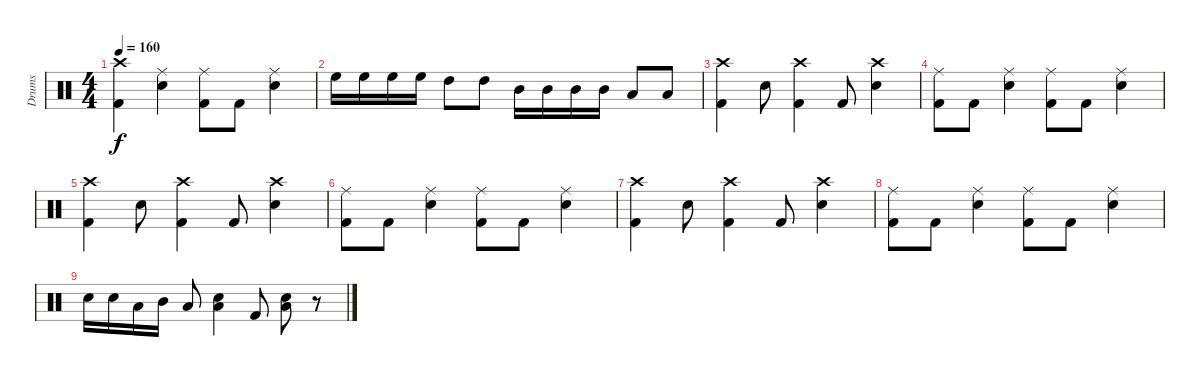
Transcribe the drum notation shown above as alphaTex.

\track ("Drums" "Drums") {instrument percussion}
\staff {score}
\articulation defaults
\ts (4 4)
\tempo 160
\clef neutral
\ks c
("Crash high (hit)" "Kick (hit) 2").4{dy f} ("Ride (middle)" "Snare (hit) 2").4 ("Ride (middle)" "Kick (hit) 2").8 "Kick (hit) 2".8 ("Ride (middle)" "Snare (hit) 2").4 |
"High Floor Tom (hit)".16 "High Floor Tom (hit)".16 "High Floor Tom (hit)".16 "High Floor Tom (hit)".16 "High Tom (hit)".8 "High Tom (hit)".8 "Mid Tom (hit)".16 "Mid Tom (hit)".16 "Mid Tom (hit)".16 "Mid Tom (hit)".16 "Low Tom (hit)".8 "Low Tom (hit)".8 |
("Crash high (hit)" "Kick (hit) 2").4 "Snare (hit) 2".8 ("Crash high (hit)" "Kick (hit) 2").4 "Kick (hit) 2".8 ("Crash high (hit)" "Snare (hit) 2").4 |
("Ride (middle)" "Kick (hit) 2").8 "Kick (hit) 2".8 ("Ride (middle)" "Snare (hit) 2").4 ("Ride (middle)" "Kick (hit) 2").8 "Kick (hit) 2".8 ("Ride (middle)" "Snare (hit) 2").4 |
("Crash high (hit)" "Kick (hit) 2").4 "Snare (hit) 2".8 ("Crash high (hit)" "Kick (hit) 2").4 "Kick (hit) 2".8 ("Crash high (hit)" "Snare (hit) 2").4 |
("Ride (middle)" "Kick (hit) 2").8 "Kick (hit) 2".8 ("Ride (middle)" "Snare (hit) 2").4 ("Ride (middle)" "Kick (hit) 2").8 "Kick (hit) 2".8 ("Ride (middle)" "Snare (hit) 2").4 |
("Crash high (hit)" "Kick (hit) 2").4 "Snare (hit) 2".8 ("Crash high (hit)" "Kick (hit) 2").4 "Kick (hit) 2".8 ("Crash high (hit)" "Snare (hit) 2").4 |
("Ride (middle)" "Kick (hit) 2").8 "Kick (hit) 2".8 ("Ride (middle)" "Snare (hit) 2").4 ("Ride (middle)" "Kick (hit) 2").8 "Kick (hit) 2".8 ("Ride (middle)" "Snare (hit) 2").4 |
"Snare (hit) 2".16 "Snare (hit) 2".16 "Low Tom (hit)".16 "Mid Tom (hit)".16 "Low Tom (hit)".8 ("Snare (hit) 2" "Low Tom (hit)").4 "Kick (hit) 2".8 ("Snare (hit) 2" "Low Tom (hit)").8 r.8
